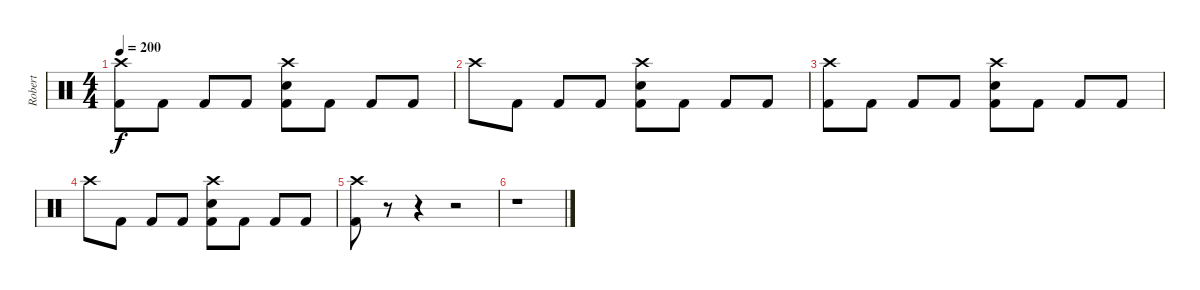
\track ("Robert" "Robert") {instrument percussion}
\staff {score}
\articulation defaults
\ts (4 4)
\tempo 200
\clef neutral
\ks c
("Crash high (hit)" "Kick (hit) 2").8{dy f} "Kick (hit) 2".8 "Kick (hit) 2".8 "Kick (hit) 2".8 ("Crash high (hit)" "Electric Snare (hit)" "Kick (hit) 2").8 "Kick (hit) 2".8 "Kick (hit) 2".8 "Kick (hit) 2".8 |
"Crash high (hit)".8 "Kick (hit) 2".8 "Kick (hit) 2".8 "Kick (hit) 2".8 ("Crash high (hit)" "Electric Snare (hit)" "Kick (hit) 2").8 "Kick (hit) 2".8 "Kick (hit) 2".8 "Kick (hit) 2".8 |
("Crash high (hit)" "Kick (hit) 2").8 "Kick (hit) 2".8 "Kick (hit) 2".8 "Kick (hit) 2".8 ("Crash high (hit)" "Electric Snare (hit)" "Kick (hit) 2").8 "Kick (hit) 2".8 "Kick (hit) 2".8 "Kick (hit) 2".8 |
"Crash high (hit)".8 "Kick (hit) 2".8 "Kick (hit) 2".8 "Kick (hit) 2".8 ("Crash high (hit)" "Electric Snare (hit)" "Kick (hit) 2").8 "Kick (hit) 2".8 "Kick (hit) 2".8 "Kick (hit) 2".8 |
("Crash high (hit)" "Kick (hit) 2").8 r.8 r.4 r.2 |
r.1
